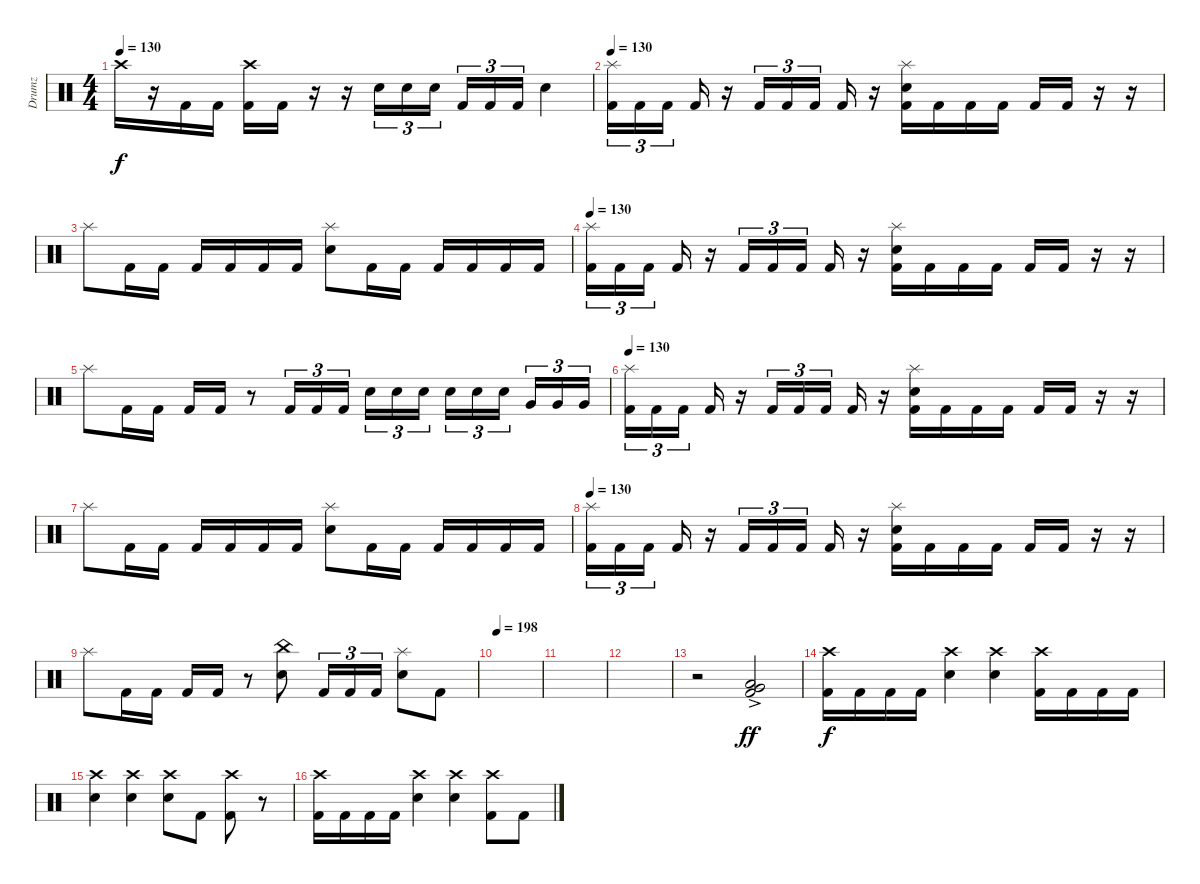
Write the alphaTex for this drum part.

\track ("Drumz" "Drumz") {instrument percussion}
\staff {score}
\articulation defaults
\ts (4 4)
\tempo 130
\clef neutral
\ks c "Crash high (hit)".16{dy f}
r.16 "Kick (hit) 2".16 "Kick (hit) 2".16 ("Crash high (hit)" "Kick (hit) 2").16 "Kick (hit) 2".16 r.16 r.16 "Electric Snare (hit)".16{tu (3 2)} "Electric Snare (hit)".16{tu (3 2)} "Electric Snare (hit)".16{tu (3 2) beam splitsecondary} "Kick (hit) 2".16{tu (3 2)} "Kick (hit) 2".16{tu (3 2)} "Kick (hit) 2".16{tu (3 2)} "Electric Snare (hit)".4 |
\tempo 130
("Splash (hit)" "Kick (hit) 2").16{tu (3 2)} "Kick (hit) 2".16{tu (3 2)} "Kick (hit) 2".16{tu (3 2) beam splitsecondary} "Kick (hit) 2".16 r.16 "Kick (hit) 2".16{tu (3 2)} "Kick (hit) 2".16{tu (3 2)} "Kick (hit) 2".16{tu (3 2) beam splitsecondary} "Kick (hit) 2".16 r.16 ("Splash (hit)" "Electric Snare (hit)" "Kick (hit) 2").16 "Kick (hit) 2".16 "Kick (hit) 2".16 "Kick (hit) 2".16 "Kick (hit) 2".16 "Kick (hit) 2".16 r.16 r.16 |
"Splash (hit)".8 "Kick (hit) 2".16 "Kick (hit) 2".16 "Kick (hit) 2".16 "Kick (hit) 2".16 "Kick (hit) 2".16 "Kick (hit) 2".16 ("Splash (hit)" "Electric Snare (hit)").8 "Kick (hit) 2".16 "Kick (hit) 2".16 "Kick (hit) 2".16 "Kick (hit) 2".16 "Kick (hit) 2".16 "Kick (hit) 2".16 |
\tempo 130
("Splash (hit)" "Kick (hit) 2").16{tu (3 2)} "Kick (hit) 2".16{tu (3 2)} "Kick (hit) 2".16{tu (3 2) beam splitsecondary} "Kick (hit) 2".16 r.16 "Kick (hit) 2".16{tu (3 2)} "Kick (hit) 2".16{tu (3 2)} "Kick (hit) 2".16{tu (3 2) beam splitsecondary} "Kick (hit) 2".16 r.16 ("Splash (hit)" "Electric Snare (hit)" "Kick (hit) 2").16 "Kick (hit) 2".16 "Kick (hit) 2".16 "Kick (hit) 2".16 "Kick (hit) 2".16 "Kick (hit) 2".16 r.16 r.16 |
"Splash (hit)".8 "Kick (hit) 2".16 "Kick (hit) 2".16 "Kick (hit) 2".16 "Kick (hit) 2".16 r.8 "Kick (hit) 2".16{tu (3 2)} "Kick (hit) 2".16{tu (3 2)} "Kick (hit) 2".16{tu (3 2) beam splitsecondary} "Electric Snare (hit)".16{tu (3 2)} "Electric Snare (hit)".16{tu (3 2)} "Electric Snare (hit)".16{tu (3 2)} "Electric Snare (hit)".16{tu (3 2)} "Electric Snare (hit)".16{tu (3 2)} "Electric Snare (hit)".16{tu (3 2) beam splitsecondary} "Very Low Tom (hit)".16{tu (3 2)} "Very Low Tom (hit)".16{tu (3 2)} "Very Low Tom (hit)".16{tu (3 2)} |
\tempo 130
("Splash (hit)" "Kick (hit) 2").16{tu (3 2)} "Kick (hit) 2".16{tu (3 2)} "Kick (hit) 2".16{tu (3 2) beam splitsecondary} "Kick (hit) 2".16 r.16 "Kick (hit) 2".16{tu (3 2)} "Kick (hit) 2".16{tu (3 2)} "Kick (hit) 2".16{tu (3 2) beam splitsecondary} "Kick (hit) 2".16 r.16 ("Splash (hit)" "Electric Snare (hit)" "Kick (hit) 2").16 "Kick (hit) 2".16 "Kick (hit) 2".16 "Kick (hit) 2".16 "Kick (hit) 2".16 "Kick (hit) 2".16 r.16 r.16 |
"Splash (hit)".8 "Kick (hit) 2".16 "Kick (hit) 2".16 "Kick (hit) 2".16 "Kick (hit) 2".16 "Kick (hit) 2".16 "Kick (hit) 2".16 ("Splash (hit)" "Electric Snare (hit)").8 "Kick (hit) 2".16 "Kick (hit) 2".16 "Kick (hit) 2".16 "Kick (hit) 2".16 "Kick (hit) 2".16 "Kick (hit) 2".16 |
\tempo 130
("Splash (hit)" "Kick (hit) 2").16{tu (3 2)} "Kick (hit) 2".16{tu (3 2)} "Kick (hit) 2".16{tu (3 2) beam splitsecondary} "Kick (hit) 2".16 r.16 "Kick (hit) 2".16{tu (3 2)} "Kick (hit) 2".16{tu (3 2)} "Kick (hit) 2".16{tu (3 2) beam splitsecondary} "Kick (hit) 2".16 r.16 ("Splash (hit)" "Electric Snare (hit)" "Kick (hit) 2").16 "Kick (hit) 2".16 "Kick (hit) 2".16 "Kick (hit) 2".16 "Kick (hit) 2".16 "Kick (hit) 2".16 r.16 r.16 |
"Splash (hit)".8 "Kick (hit) 2".16 "Kick (hit) 2".16 "Kick (hit) 2".16 "Kick (hit) 2".16 r.8 ("China (hit)" "Electric Snare (hit)").8 "Kick (hit) 2".16{tu (3 2)} "Kick (hit) 2".16{tu (3 2)} "Kick (hit) 2".16{tu (3 2)} ("Splash (hit)" "Electric Snare (hit)").8 "Kick (hit) 2".8 |
\tempo 198
|
|
|
r.2 ("Low Tom (hit)"{ac} "Very Low Tom (hit)"{ac} "Kick (hit) 2").2{dy ff} |
("Crash high (hit)" "Kick (hit) 2").16{dy f} "Kick (hit) 2".16 "Kick (hit) 2".16 "Kick (hit) 2".16 ("Crash high (hit)" "Electric Snare (hit)").4 ("Crash high (hit)" "Electric Snare (hit)").4 ("Crash high (hit)" "Kick (hit) 2").16 "Kick (hit) 2".16 "Kick (hit) 2".16 "Kick (hit) 2".16 |
("Crash high (hit)" "Electric Snare (hit)").4 ("Crash high (hit)" "Electric Snare (hit)").4 ("Crash high (hit)" "Electric Snare (hit)").8 "Kick (hit) 2".8 ("Crash high (hit)" "Kick (hit) 2").8 r.8 |
("Crash high (hit)" "Kick (hit) 2").16 "Kick (hit) 2".16 "Kick (hit) 2".16 "Kick (hit) 2".16 ("Crash high (hit)" "Electric Snare (hit)").4 ("Crash high (hit)" "Electric Snare (hit)").4 ("Crash high (hit)" "Kick (hit) 2").8 "Kick (hit) 2".8
